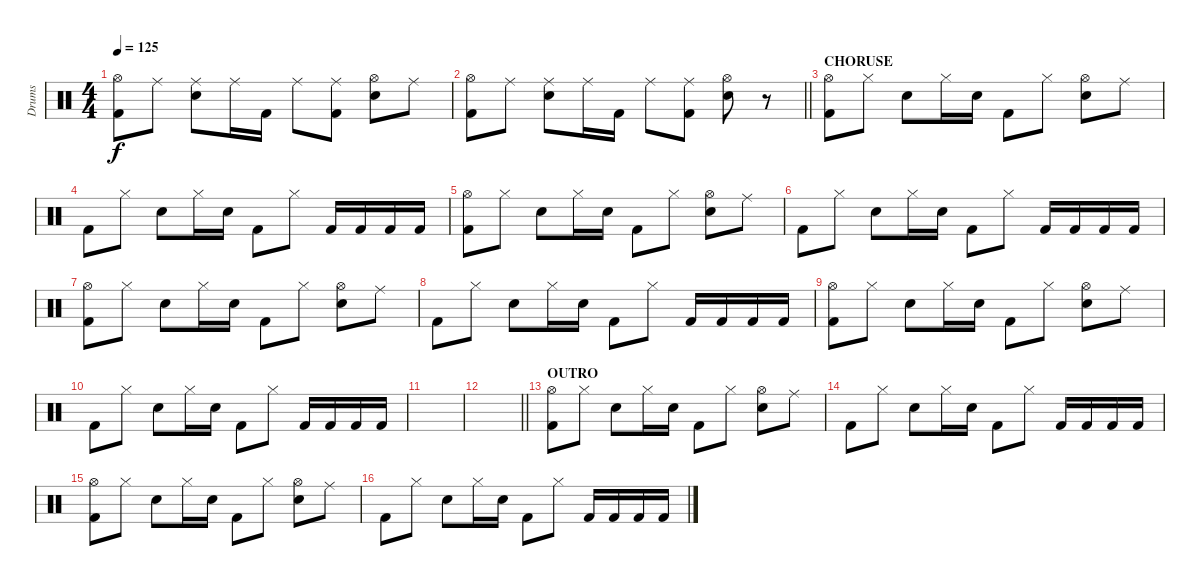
\track ("Drums" "Drums") {instrument percussion}
\staff {score}
\articulation defaults
\ts (4 4)
\tempo 125
\clef neutral
\ks c
("Hi-Hat (open)" "Kick (hit) 2").8{dy f} "Ride (middle)".8 ("Ride (middle)" "Snare (hit) 2").8 "Ride (middle)".16 "Kick (hit) 2".16 "Ride (middle)".8 ("Ride (middle)" "Kick (hit) 2").8 ("Hi-Hat (open)" "Snare (hit) 2").8 "Ride (middle)".8 |
\barLineRight lightlight
("Hi-Hat (open)" "Kick (hit) 2").8 "Ride (middle)".8 ("Ride (middle)" "Snare (hit) 2").8 "Ride (middle)".16 "Kick (hit) 2".16 "Ride (middle)".8 ("Ride (middle)" "Kick (hit) 2").8 ("Hi-Hat (open)" "Snare (hit) 2").8 r.8 |
\section ("" "CHORUSE")
("Hi-Hat (open)" "Kick (hit) 2").8 "Hi-Hat (closed)".8 "Snare (hit) 2".8 "Hi-Hat (closed)".16 "Snare (hit) 2".16 "Kick (hit) 2".8 "Hi-Hat (closed)".8 ("Hi-Hat (open)" "Snare (hit) 2").8 "Ride (middle)".8 |
"Kick (hit) 2".8 "Hi-Hat (closed)".8 "Snare (hit) 2".8 "Hi-Hat (closed)".16 "Snare (hit) 2".16 "Kick (hit) 2".8 "Hi-Hat (closed)".8 "Kick (hit) 2".16 "Kick (hit) 2".16 "Kick (hit) 2".16 "Kick (hit) 2".16 |
("Hi-Hat (open)" "Kick (hit) 2").8 "Hi-Hat (closed)".8 "Snare (hit) 2".8 "Hi-Hat (closed)".16 "Snare (hit) 2".16 "Kick (hit) 2".8 "Hi-Hat (closed)".8 ("Hi-Hat (open)" "Snare (hit) 2").8 "Ride (middle)".8 |
"Kick (hit) 2".8 "Hi-Hat (closed)".8 "Snare (hit) 2".8 "Hi-Hat (closed)".16 "Snare (hit) 2".16 "Kick (hit) 2".8 "Hi-Hat (closed)".8 "Kick (hit) 2".16 "Kick (hit) 2".16 "Kick (hit) 2".16 "Kick (hit) 2".16 |
("Hi-Hat (open)" "Kick (hit) 2").8 "Hi-Hat (closed)".8 "Snare (hit) 2".8 "Hi-Hat (closed)".16 "Snare (hit) 2".16 "Kick (hit) 2".8 "Hi-Hat (closed)".8 ("Hi-Hat (open)" "Snare (hit) 2").8 "Ride (middle)".8 |
"Kick (hit) 2".8 "Hi-Hat (closed)".8 "Snare (hit) 2".8 "Hi-Hat (closed)".16 "Snare (hit) 2".16 "Kick (hit) 2".8 "Hi-Hat (closed)".8 "Kick (hit) 2".16 "Kick (hit) 2".16 "Kick (hit) 2".16 "Kick (hit) 2".16 |
("Hi-Hat (open)" "Kick (hit) 2").8 "Hi-Hat (closed)".8 "Snare (hit) 2".8 "Hi-Hat (closed)".16 "Snare (hit) 2".16 "Kick (hit) 2".8 "Hi-Hat (closed)".8 ("Hi-Hat (open)" "Snare (hit) 2").8 "Ride (middle)".8 |
"Kick (hit) 2".8 "Hi-Hat (closed)".8 "Snare (hit) 2".8 "Hi-Hat (closed)".16 "Snare (hit) 2".16 "Kick (hit) 2".8 "Hi-Hat (closed)".8 "Kick (hit) 2".16 "Kick (hit) 2".16 "Kick (hit) 2".16 "Kick (hit) 2".16 |
|
\barLineRight lightlight
|
\section ("" "OUTRO")
("Hi-Hat (open)" "Kick (hit) 2").8 "Hi-Hat (closed)".8 "Snare (hit) 2".8 "Hi-Hat (closed)".16 "Snare (hit) 2".16 "Kick (hit) 2".8 "Hi-Hat (closed)".8 ("Hi-Hat (open)" "Snare (hit) 2").8 "Ride (middle)".8 |
"Kick (hit) 2".8 "Hi-Hat (closed)".8 "Snare (hit) 2".8 "Hi-Hat (closed)".16 "Snare (hit) 2".16 "Kick (hit) 2".8 "Hi-Hat (closed)".8 "Kick (hit) 2".16 "Kick (hit) 2".16 "Kick (hit) 2".16 "Kick (hit) 2".16 |
("Hi-Hat (open)" "Kick (hit) 2").8 "Hi-Hat (closed)".8 "Snare (hit) 2".8 "Hi-Hat (closed)".16 "Snare (hit) 2".16 "Kick (hit) 2".8 "Hi-Hat (closed)".8 ("Hi-Hat (open)" "Snare (hit) 2").8 "Ride (middle)".8 |
"Kick (hit) 2".8 "Hi-Hat (closed)".8 "Snare (hit) 2".8 "Hi-Hat (closed)".16 "Snare (hit) 2".16 "Kick (hit) 2".8 "Hi-Hat (closed)".8 "Kick (hit) 2".16 "Kick (hit) 2".16 "Kick (hit) 2".16 "Kick (hit) 2".16
